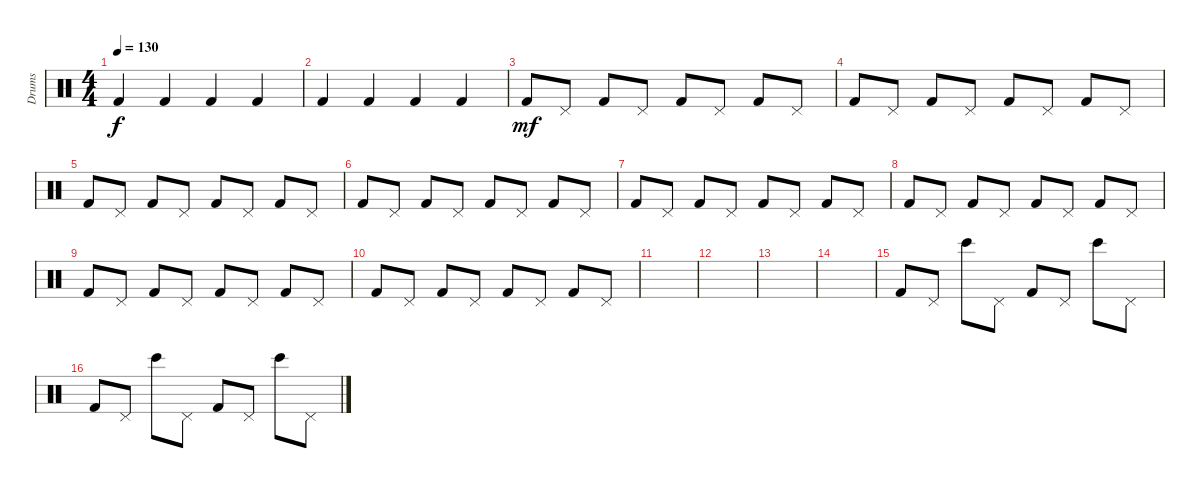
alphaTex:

\track ("Drums" "Drums") {instrument percussion}
\staff {score}
\articulation defaults
\ts (4 4)
\tempo 130
\clef neutral
\ks c "Kick (hit) 2".4{dy f} "Kick (hit) 2".4 "Kick (hit) 2".4 "Kick (hit) 2".4
|
"Kick (hit) 2".4 "Kick (hit) 2".4 "Kick (hit) 2".4 "Kick (hit) 2".4 |
"Kick (hit) 2".8{dy mf} "Pedal Hi-Hat (hit)".8 "Kick (hit) 2".8 "Pedal Hi-Hat (hit)".8 "Kick (hit) 2".8 "Pedal Hi-Hat (hit)".8 "Kick (hit) 2".8 "Pedal Hi-Hat (hit)".8 |
"Kick (hit) 2".8 "Pedal Hi-Hat (hit)".8 "Kick (hit) 2".8 "Pedal Hi-Hat (hit)".8 "Kick (hit) 2".8 "Pedal Hi-Hat (hit)".8 "Kick (hit) 2".8 "Pedal Hi-Hat (hit)".8 |
"Kick (hit) 2".8 "Pedal Hi-Hat (hit)".8 "Kick (hit) 2".8 "Pedal Hi-Hat (hit)".8 "Kick (hit) 2".8 "Pedal Hi-Hat (hit)".8 "Kick (hit) 2".8 "Pedal Hi-Hat (hit)".8 |
"Kick (hit) 2".8 "Pedal Hi-Hat (hit)".8 "Kick (hit) 2".8 "Pedal Hi-Hat (hit)".8 "Kick (hit) 2".8 "Pedal Hi-Hat (hit)".8 "Kick (hit) 2".8 "Pedal Hi-Hat (hit)".8 |
"Kick (hit) 2".8 "Pedal Hi-Hat (hit)".8 "Kick (hit) 2".8 "Pedal Hi-Hat (hit)".8 "Kick (hit) 2".8 "Pedal Hi-Hat (hit)".8 "Kick (hit) 2".8 "Pedal Hi-Hat (hit)".8 |
"Kick (hit) 2".8 "Pedal Hi-Hat (hit)".8 "Kick (hit) 2".8 "Pedal Hi-Hat (hit)".8 "Kick (hit) 2".8 "Pedal Hi-Hat (hit)".8 "Kick (hit) 2".8 "Pedal Hi-Hat (hit)".8 |
"Kick (hit) 2".8 "Pedal Hi-Hat (hit)".8 "Kick (hit) 2".8 "Pedal Hi-Hat (hit)".8 "Kick (hit) 2".8 "Pedal Hi-Hat (hit)".8 "Kick (hit) 2".8 "Pedal Hi-Hat (hit)".8 |
"Kick (hit) 2".8 "Pedal Hi-Hat (hit)".8 "Kick (hit) 2".8 "Pedal Hi-Hat (hit)".8 "Kick (hit) 2".8 "Pedal Hi-Hat (hit)".8 "Kick (hit) 2".8 "Pedal Hi-Hat (hit)".8 |
|
|
|
|
"Kick (hit) 2".8 "Pedal Hi-Hat (hit)".8 "Bongo High (hit)".8 "Pedal Hi-Hat (hit)".8 "Kick (hit) 2".8 "Pedal Hi-Hat (hit)".8 "Bongo High (hit)".8 "Pedal Hi-Hat (hit)".8 |
"Kick (hit) 2".8 "Pedal Hi-Hat (hit)".8 "Bongo High (hit)".8 "Pedal Hi-Hat (hit)".8 "Kick (hit) 2".8 "Pedal Hi-Hat (hit)".8 "Bongo High (hit)".8 "Pedal Hi-Hat (hit)".8
